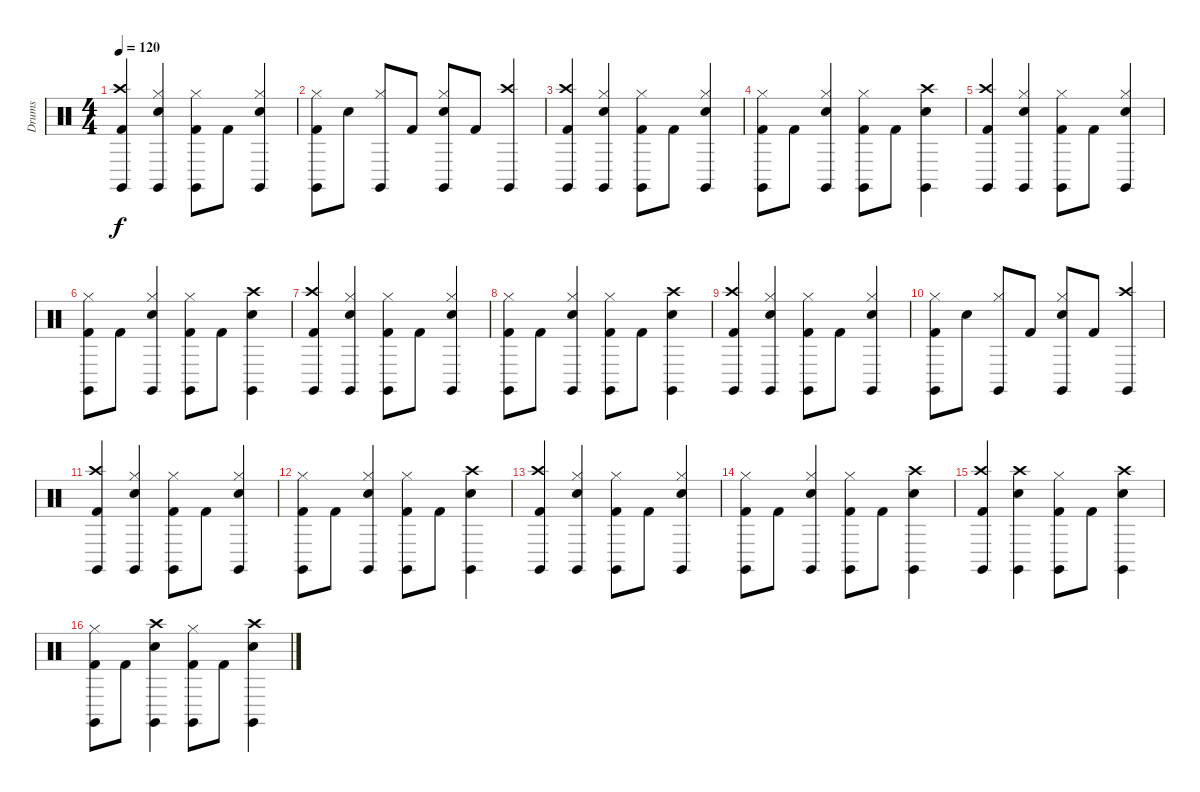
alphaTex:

\track ("Drums" "Drums") {instrument percussion}
\staff {score}
\articulation defaults
\ts (4 4)
\tempo 120
\clef neutral
\ks c
("Crash high (hit)" "Kick (hit) 2" "Claves (hit)").4{dy f} ("Hi-Hat (closed)" "Snare (hit) 2" "Claves (hit)").4 ("Hi-Hat (closed)" "Kick (hit) 2" "Claves (hit)").8 "Kick (hit) 2".8 ("Hi-Hat (closed)" "Snare (hit) 2" "Claves (hit)").4 |
("Hi-Hat (closed)" "Kick (hit) 2" "Claves (hit)").8 "Snare (hit) 2".8 ("Hi-Hat (closed)" "Claves (hit)").8 "Kick (hit) 2".8 ("Hi-Hat (closed)" "Snare (hit) 2" "Claves (hit)").8 "Kick (hit) 2".8 ("Crash high (hit)" "Claves (hit)").4 |
("Crash high (hit)" "Kick (hit) 2" "Claves (hit)").4 ("Hi-Hat (closed)" "Snare (hit) 2" "Claves (hit)").4 ("Hi-Hat (closed)" "Kick (hit) 2" "Claves (hit)").8 "Kick (hit) 2".8 ("Hi-Hat (closed)" "Snare (hit) 2" "Claves (hit)").4 |
("Hi-Hat (closed)" "Kick (hit) 2" "Claves (hit)").8 "Kick (hit) 2".8 ("Hi-Hat (closed)" "Snare (hit) 2" "Claves (hit)").4 ("Hi-Hat (closed)" "Kick (hit) 2" "Claves (hit)").8 "Kick (hit) 2".8 ("Crash high (hit)" "Snare (hit) 2" "Claves (hit)").4 |
("Crash high (hit)" "Kick (hit) 2" "Claves (hit)").4 ("Hi-Hat (closed)" "Snare (hit) 2" "Claves (hit)").4 ("Hi-Hat (closed)" "Kick (hit) 2" "Claves (hit)").8 "Kick (hit) 2".8 ("Hi-Hat (closed)" "Snare (hit) 2" "Claves (hit)").4 |
("Hi-Hat (closed)" "Kick (hit) 2" "Claves (hit)").8 "Kick (hit) 2".8 ("Hi-Hat (closed)" "Snare (hit) 2" "Claves (hit)").4 ("Hi-Hat (closed)" "Kick (hit) 2" "Claves (hit)").8 "Kick (hit) 2".8 ("Crash high (hit)" "Snare (hit) 2" "Claves (hit)").4 |
("Crash high (hit)" "Kick (hit) 2" "Claves (hit)").4 ("Hi-Hat (closed)" "Snare (hit) 2" "Claves (hit)").4 ("Hi-Hat (closed)" "Kick (hit) 2" "Claves (hit)").8 "Kick (hit) 2".8 ("Hi-Hat (closed)" "Snare (hit) 2" "Claves (hit)").4 |
("Hi-Hat (closed)" "Kick (hit) 2" "Claves (hit)").8 "Kick (hit) 2".8 ("Hi-Hat (closed)" "Snare (hit) 2" "Claves (hit)").4 ("Hi-Hat (closed)" "Kick (hit) 2" "Claves (hit)").8 "Kick (hit) 2".8 ("Crash high (hit)" "Snare (hit) 2" "Claves (hit)").4 |
("Crash high (hit)" "Kick (hit) 2" "Claves (hit)").4 ("Hi-Hat (closed)" "Snare (hit) 2" "Claves (hit)").4 ("Hi-Hat (closed)" "Kick (hit) 2" "Claves (hit)").8 "Kick (hit) 2".8 ("Hi-Hat (closed)" "Snare (hit) 2" "Claves (hit)").4 |
("Hi-Hat (closed)" "Kick (hit) 2" "Claves (hit)").8 "Snare (hit) 2".8 ("Hi-Hat (closed)" "Claves (hit)").8 "Kick (hit) 2".8 ("Hi-Hat (closed)" "Snare (hit) 2" "Claves (hit)").8 "Kick (hit) 2".8 ("Crash high (hit)" "Claves (hit)").4 |
("Crash high (hit)" "Kick (hit) 2" "Claves (hit)").4 ("Hi-Hat (closed)" "Snare (hit) 2" "Claves (hit)").4 ("Hi-Hat (closed)" "Kick (hit) 2" "Claves (hit)").8 "Kick (hit) 2".8 ("Hi-Hat (closed)" "Snare (hit) 2" "Claves (hit)").4 |
("Hi-Hat (closed)" "Kick (hit) 2" "Claves (hit)").8 "Kick (hit) 2".8 ("Hi-Hat (closed)" "Snare (hit) 2" "Claves (hit)").4 ("Hi-Hat (closed)" "Kick (hit) 2" "Claves (hit)").8 "Kick (hit) 2".8 ("Crash high (hit)" "Snare (hit) 2" "Claves (hit)").4 |
("Crash high (hit)" "Kick (hit) 2" "Claves (hit)").4 ("Hi-Hat (closed)" "Snare (hit) 2" "Claves (hit)").4 ("Hi-Hat (closed)" "Kick (hit) 2" "Claves (hit)").8 "Kick (hit) 2".8 ("Hi-Hat (closed)" "Snare (hit) 2" "Claves (hit)").4 |
("Hi-Hat (closed)" "Kick (hit) 2" "Claves (hit)").8 "Kick (hit) 2".8 ("Hi-Hat (closed)" "Snare (hit) 2" "Claves (hit)").4 ("Hi-Hat (closed)" "Kick (hit) 2" "Claves (hit)").8 "Kick (hit) 2".8 ("Crash high (hit)" "Snare (hit) 2" "Claves (hit)").4 |
("Crash high (hit)" "Kick (hit) 2" "Claves (hit)").4 ("Crash high (hit)" "Snare (hit) 2" "Claves (hit)").4 ("Hi-Hat (closed)" "Kick (hit) 2" "Claves (hit)").8 "Kick (hit) 2".8 ("Crash high (hit)" "Snare (hit) 2" "Claves (hit)").4 |
("Hi-Hat (closed)" "Kick (hit) 2" "Claves (hit)").8 "Kick (hit) 2".8 ("Crash high (hit)" "Snare (hit) 2" "Claves (hit)").4 ("Hi-Hat (closed)" "Kick (hit) 2" "Claves (hit)").8 "Kick (hit) 2".8 ("Crash high (hit)" "Snare (hit) 2" "Claves (hit)").4
